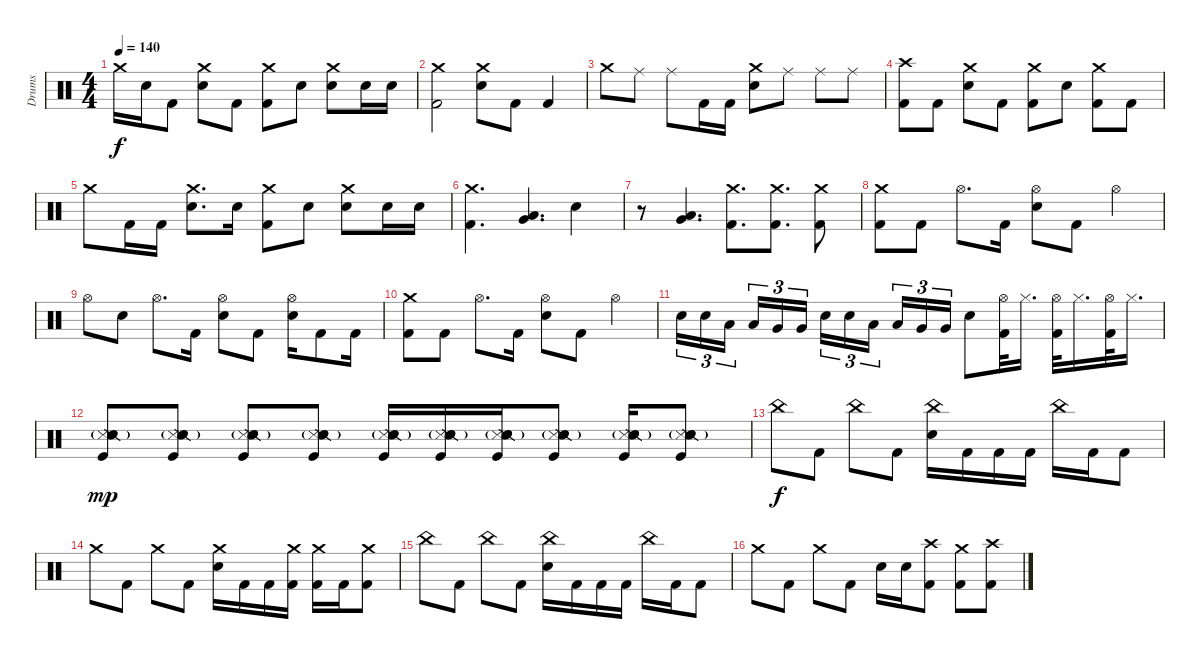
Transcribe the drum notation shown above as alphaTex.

\track ("Drums" "Drums") {instrument percussion}
\staff {score}
\articulation defaults
\ts (4 4)
\tempo 140
\clef neutral
\ks c "Crash medium (hit)".16{dy f} "Electric Snare (hit)".16 "Kick (hit) 2".8
("Crash medium (hit)" "Electric Snare (hit)").8 "Kick (hit) 2".8 ("Crash medium (hit)" "Kick (hit) 2").8 "Electric Snare (hit)".8 ("Crash medium (hit)" "Electric Snare (hit)").8 "Electric Snare (hit)".16 "Electric Snare (hit)".16 |
("Crash medium (hit)" "Kick (hit) 2").2 ("Crash medium (hit)" "Electric Snare (hit)").8 "Kick (hit) 2".8 "Kick (hit) 2".4 |
"Crash medium (hit)".8 "Ride (middle)".8 "Ride (middle)".8 "Kick (hit) 2".16 "Kick (hit) 2".16 ("Crash medium (hit)" "Electric Snare (hit)").8 "Ride (middle)".8 "Ride (middle)".8 "Ride (middle)".8 |
("Crash high (hit)" "Kick (hit) 2").8 "Kick (hit) 2".8 ("Crash medium (hit)" "Electric Snare (hit)").8 "Kick (hit) 2".8 ("Crash medium (hit)" "Kick (hit) 2").8 "Electric Snare (hit)".8 ("Crash medium (hit)" "Kick (hit) 2").8 "Kick (hit) 2".8 |
"Crash medium (hit)".8 "Kick (hit) 2".16 "Kick (hit) 2".16 ("Crash medium (hit)" "Electric Snare (hit)").8{d} "Electric Snare (hit)".16 ("Crash medium (hit)" "Kick (hit) 2").8 "Electric Snare (hit)".8 ("Crash medium (hit)" "Electric Snare (hit)").8 "Electric Snare (hit)".16 "Electric Snare (hit)".16 |
("Crash medium (hit)" "Kick (hit) 2").4{d} ("Low Floor Tom (hit)" "Very Low Tom (hit)").4{d} "Electric Snare (hit)".4 |
r.8 ("Low Floor Tom (hit)" "Very Low Tom (hit)").4{d} ("Crash medium (hit)" "Kick (hit) 2").8{d} ("Crash medium (hit)" "Kick (hit) 2").8{d} ("Crash medium (hit)" "Kick (hit) 2").8 |
("Crash medium (hit)" "Kick (hit) 2").8 "Kick (hit) 2".8 "Hi-Hat (open)".8{d} "Kick (hit) 2".16 ("Hi-Hat (open)" "Electric Snare (hit)").8 "Kick (hit) 2".8 "Hi-Hat (open)".4 |
"Hi-Hat (open)".8 "Electric Snare (hit)".8 "Hi-Hat (open)".8{d} "Kick (hit) 2".16 ("Hi-Hat (open)" "Electric Snare (hit)").8 "Kick (hit) 2".8 ("Hi-Hat (open)" "Electric Snare (hit)").16 "Kick (hit) 2".8 "Kick (hit) 2".16 |
("Crash medium (hit)" "Kick (hit) 2").8 "Kick (hit) 2".8 "Hi-Hat (open)".8{d} "Kick (hit) 2".16 ("Hi-Hat (open)" "Electric Snare (hit)").8 "Kick (hit) 2".8 "Hi-Hat (open)".4 |
"Electric Snare (hit)".16{tu (3 2)} "Electric Snare (hit)".16{tu (3 2)} "Low Tom (hit)".16{tu (3 2) beam splitsecondary} "Low Tom (hit)".16{tu (3 2)} "Very Low Tom (hit)".16{tu (3 2)} "Very Low Tom (hit)".16{tu (3 2)} "Electric Snare (hit)".16{tu (3 2)} "Electric Snare (hit)".16{tu (3 2)} "Low Tom (hit)".16{tu (3 2) beam splitsecondary} "Low Tom (hit)".16{tu (3 2)} "Very Low Tom (hit)".16{tu (3 2)} "Very Low Tom (hit)".16{tu (3 2)} "Electric Snare (hit)".8 ("Hi-Hat (open)" "Kick (hit) 2").32 "Hi-Hat (closed)".16{d} ("Hi-Hat (open)" "Kick (hit) 2").32 "Hi-Hat (closed)".16{d} ("Hi-Hat (open)" "Kick (hit) 2").32 "Hi-Hat (closed)".16{d} |
("Snare (side stick) 3" "Snare (side stick) 2" "Snare (side stick) 2"{g} "Snare (hit) 2"{g} "Kick (hit)").8{dy mp} ("Snare (side stick) 3" "Snare (side stick) 2" "Snare (side stick) 2"{g} "Snare (hit) 2"{g} "Kick (hit)").8 ("Snare (side stick) 3" "Snare (side stick) 2" "Snare (side stick) 2"{g} "Snare (hit) 2"{g} "Kick (hit)").8 ("Snare (side stick) 3" "Snare (side stick) 2" "Snare (side stick) 2"{g} "Snare (hit) 2"{g} "Kick (hit)").8 ("Snare (side stick) 3" "Snare (side stick) 2" "Snare (side stick) 2"{g} "Snare (hit) 2"{g} "Kick (hit)").16 ("Snare (side stick) 3" "Snare (side stick) 2" "Snare (side stick) 2"{g} "Snare (hit) 2"{g} "Kick (hit)").16 ("Snare (side stick) 3" "Snare (side stick) 2" "Snare (side stick) 2"{g} "Snare (hit) 2"{g} "Kick (hit)").16 ("Snare (side stick) 3" "Snare (side stick) 2" "Snare (side stick) 2"{g} "Snare (hit) 2"{g} "Kick (hit)").8 ("Snare (side stick) 3" "Snare (side stick) 2" "Snare (side stick) 2"{g} "Snare (hit) 2"{g} "Kick (hit)").16 ("Snare (side stick) 3" "Snare (side stick) 2" "Snare (side stick) 2"{g} "Snare (hit) 2"{g} "Kick (hit)").8 |
"China (hit)".8{dy f} "Kick (hit) 2".8 "China (hit)".8 "Kick (hit) 2".8 ("China (hit)" "Electric Snare (hit)").16 "Kick (hit) 2".16 "Kick (hit) 2".16 "Kick (hit) 2".16 "China (hit)".16 "Kick (hit) 2".16 "Kick (hit) 2".8 |
"Crash medium (hit)".8 "Kick (hit) 2".8 "Crash medium (hit)".8 "Kick (hit) 2".8 ("Crash medium (hit)" "Electric Snare (hit)").16 "Kick (hit) 2".16 "Kick (hit) 2".16 ("Crash medium (hit)" "Kick (hit) 2").16 ("Crash medium (hit)" "Kick (hit) 2").16 "Kick (hit) 2".16 ("Crash medium (hit)" "Kick (hit) 2").8 |
"China (hit)".8 "Kick (hit) 2".8 "China (hit)".8 "Kick (hit) 2".8 ("China (hit)" "Electric Snare (hit)").16 "Kick (hit) 2".16 "Kick (hit) 2".16 "Kick (hit) 2".16 "China (hit)".16 "Kick (hit) 2".16 "Kick (hit) 2".8 |
"Crash medium (hit)".8 "Kick (hit) 2".8 "Crash medium (hit)".8 "Kick (hit) 2".8 "Electric Snare (hit)".16 "Electric Snare (hit)".16 ("Crash high (hit)" "Kick (hit) 2").8 ("Crash medium (hit)" "Kick (hit) 2").8 ("Crash high (hit)" "Kick (hit) 2").8
